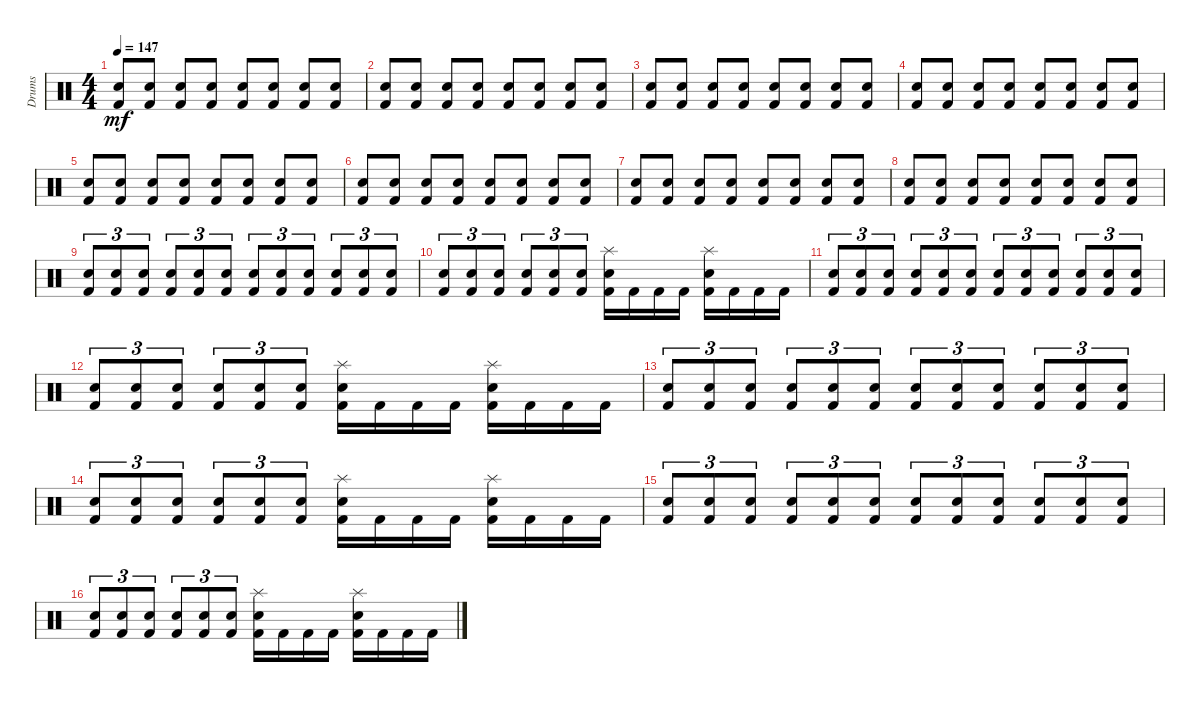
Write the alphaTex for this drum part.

\track ("Drums" "Drums") {instrument percussion}
\staff {score}
\articulation defaults
\ts (4 4)
\tempo 147
\clef neutral
\ks c
("Kick (hit) 2" "Snare (hit) 2").8{dy mf} ("Kick (hit) 2" "Snare (hit) 2").8 ("Kick (hit) 2" "Snare (hit) 2").8 ("Kick (hit) 2" "Snare (hit) 2").8 ("Kick (hit) 2" "Snare (hit) 2").8 ("Kick (hit) 2" "Snare (hit) 2").8 ("Kick (hit) 2" "Snare (hit) 2").8 ("Kick (hit) 2" "Snare (hit) 2").8 |
("Kick (hit) 2" "Snare (hit) 2").8 ("Kick (hit) 2" "Snare (hit) 2").8 ("Kick (hit) 2" "Snare (hit) 2").8 ("Kick (hit) 2" "Snare (hit) 2").8 ("Kick (hit) 2" "Snare (hit) 2").8 ("Kick (hit) 2" "Snare (hit) 2").8 ("Kick (hit) 2" "Snare (hit) 2").8 ("Kick (hit) 2" "Snare (hit) 2").8 |
("Kick (hit) 2" "Snare (hit) 2").8 ("Kick (hit) 2" "Snare (hit) 2").8 ("Kick (hit) 2" "Snare (hit) 2").8 ("Kick (hit) 2" "Snare (hit) 2").8 ("Kick (hit) 2" "Snare (hit) 2").8 ("Kick (hit) 2" "Snare (hit) 2").8 ("Kick (hit) 2" "Snare (hit) 2").8 ("Kick (hit) 2" "Snare (hit) 2").8 |
("Kick (hit) 2" "Snare (hit) 2").8 ("Kick (hit) 2" "Snare (hit) 2").8 ("Kick (hit) 2" "Snare (hit) 2").8 ("Kick (hit) 2" "Snare (hit) 2").8 ("Kick (hit) 2" "Snare (hit) 2").8 ("Kick (hit) 2" "Snare (hit) 2").8 ("Kick (hit) 2" "Snare (hit) 2").8 ("Kick (hit) 2" "Snare (hit) 2").8 |
("Kick (hit) 2" "Snare (hit) 2").8 ("Kick (hit) 2" "Snare (hit) 2").8 ("Kick (hit) 2" "Snare (hit) 2").8 ("Kick (hit) 2" "Snare (hit) 2").8 ("Kick (hit) 2" "Snare (hit) 2").8 ("Kick (hit) 2" "Snare (hit) 2").8 ("Kick (hit) 2" "Snare (hit) 2").8 ("Kick (hit) 2" "Snare (hit) 2").8 |
("Kick (hit) 2" "Snare (hit) 2").8 ("Kick (hit) 2" "Snare (hit) 2").8 ("Kick (hit) 2" "Snare (hit) 2").8 ("Kick (hit) 2" "Snare (hit) 2").8 ("Kick (hit) 2" "Snare (hit) 2").8 ("Kick (hit) 2" "Snare (hit) 2").8 ("Kick (hit) 2" "Snare (hit) 2").8 ("Kick (hit) 2" "Snare (hit) 2").8 |
("Kick (hit) 2" "Snare (hit) 2").8 ("Kick (hit) 2" "Snare (hit) 2").8 ("Kick (hit) 2" "Snare (hit) 2").8 ("Kick (hit) 2" "Snare (hit) 2").8 ("Kick (hit) 2" "Snare (hit) 2").8 ("Kick (hit) 2" "Snare (hit) 2").8 ("Kick (hit) 2" "Snare (hit) 2").8 ("Kick (hit) 2" "Snare (hit) 2").8 |
("Kick (hit) 2" "Snare (hit) 2").8 ("Kick (hit) 2" "Snare (hit) 2").8 ("Kick (hit) 2" "Snare (hit) 2").8 ("Kick (hit) 2" "Snare (hit) 2").8 ("Kick (hit) 2" "Snare (hit) 2").8 ("Kick (hit) 2" "Snare (hit) 2").8 ("Kick (hit) 2" "Snare (hit) 2").8 ("Kick (hit) 2" "Snare (hit) 2").8 |
("Kick (hit) 2" "Snare (hit) 2").8{tu (3 2)} ("Kick (hit) 2" "Snare (hit) 2").8{tu (3 2)} ("Kick (hit) 2" "Snare (hit) 2").8{tu (3 2)} ("Kick (hit) 2" "Snare (hit) 2").8{tu (3 2)} ("Kick (hit) 2" "Snare (hit) 2").8{tu (3 2)} ("Kick (hit) 2" "Snare (hit) 2").8{tu (3 2)} ("Kick (hit) 2" "Snare (hit) 2").8{tu (3 2)} ("Kick (hit) 2" "Snare (hit) 2").8{tu (3 2)} ("Kick (hit) 2" "Snare (hit) 2").8{tu (3 2)} ("Kick (hit) 2" "Snare (hit) 2").8{tu (3 2)} ("Kick (hit) 2" "Snare (hit) 2").8{tu (3 2)} ("Kick (hit) 2" "Snare (hit) 2").8{tu (3 2)} |
("Kick (hit) 2" "Snare (hit) 2").8{tu (3 2)} ("Kick (hit) 2" "Snare (hit) 2").8{tu (3 2)} ("Kick (hit) 2" "Snare (hit) 2").8{tu (3 2)} ("Kick (hit) 2" "Snare (hit) 2").8{tu (3 2)} ("Kick (hit) 2" "Snare (hit) 2").8{tu (3 2)} ("Kick (hit) 2" "Snare (hit) 2").8{tu (3 2)} ("Kick (hit) 2" "Snare (hit) 2" "Splash (hit)").16 "Kick (hit) 2".16 "Kick (hit) 2".16 "Kick (hit) 2".16 ("Kick (hit) 2" "Snare (hit) 2" "Splash (hit)").16 "Kick (hit) 2".16 "Kick (hit) 2".16 "Kick (hit) 2".16 |
("Kick (hit) 2" "Snare (hit) 2").8{tu (3 2)} ("Kick (hit) 2" "Snare (hit) 2").8{tu (3 2)} ("Kick (hit) 2" "Snare (hit) 2").8{tu (3 2)} ("Kick (hit) 2" "Snare (hit) 2").8{tu (3 2)} ("Kick (hit) 2" "Snare (hit) 2").8{tu (3 2)} ("Kick (hit) 2" "Snare (hit) 2").8{tu (3 2)} ("Kick (hit) 2" "Snare (hit) 2").8{tu (3 2)} ("Kick (hit) 2" "Snare (hit) 2").8{tu (3 2)} ("Kick (hit) 2" "Snare (hit) 2").8{tu (3 2)} ("Kick (hit) 2" "Snare (hit) 2").8{tu (3 2)} ("Kick (hit) 2" "Snare (hit) 2").8{tu (3 2)} ("Kick (hit) 2" "Snare (hit) 2").8{tu (3 2)} |
("Kick (hit) 2" "Snare (hit) 2").8{tu (3 2)} ("Kick (hit) 2" "Snare (hit) 2").8{tu (3 2)} ("Kick (hit) 2" "Snare (hit) 2").8{tu (3 2)} ("Kick (hit) 2" "Snare (hit) 2").8{tu (3 2)} ("Kick (hit) 2" "Snare (hit) 2").8{tu (3 2)} ("Kick (hit) 2" "Snare (hit) 2").8{tu (3 2)} ("Kick (hit) 2" "Snare (hit) 2" "Splash (hit)").16 "Kick (hit) 2".16 "Kick (hit) 2".16 "Kick (hit) 2".16 ("Kick (hit) 2" "Snare (hit) 2" "Splash (hit)").16 "Kick (hit) 2".16 "Kick (hit) 2".16 "Kick (hit) 2".16 |
("Kick (hit) 2" "Snare (hit) 2").8{tu (3 2)} ("Kick (hit) 2" "Snare (hit) 2").8{tu (3 2)} ("Kick (hit) 2" "Snare (hit) 2").8{tu (3 2)} ("Kick (hit) 2" "Snare (hit) 2").8{tu (3 2)} ("Kick (hit) 2" "Snare (hit) 2").8{tu (3 2)} ("Kick (hit) 2" "Snare (hit) 2").8{tu (3 2)} ("Kick (hit) 2" "Snare (hit) 2").8{tu (3 2)} ("Kick (hit) 2" "Snare (hit) 2").8{tu (3 2)} ("Kick (hit) 2" "Snare (hit) 2").8{tu (3 2)} ("Kick (hit) 2" "Snare (hit) 2").8{tu (3 2)} ("Kick (hit) 2" "Snare (hit) 2").8{tu (3 2)} ("Kick (hit) 2" "Snare (hit) 2").8{tu (3 2)} |
("Kick (hit) 2" "Snare (hit) 2").8{tu (3 2)} ("Kick (hit) 2" "Snare (hit) 2").8{tu (3 2)} ("Kick (hit) 2" "Snare (hit) 2").8{tu (3 2)} ("Kick (hit) 2" "Snare (hit) 2").8{tu (3 2)} ("Kick (hit) 2" "Snare (hit) 2").8{tu (3 2)} ("Kick (hit) 2" "Snare (hit) 2").8{tu (3 2)} ("Kick (hit) 2" "Snare (hit) 2" "Splash (hit)").16 "Kick (hit) 2".16 "Kick (hit) 2".16 "Kick (hit) 2".16 ("Kick (hit) 2" "Snare (hit) 2" "Splash (hit)").16 "Kick (hit) 2".16 "Kick (hit) 2".16 "Kick (hit) 2".16 |
("Kick (hit) 2" "Snare (hit) 2").8{tu (3 2)} ("Kick (hit) 2" "Snare (hit) 2").8{tu (3 2)} ("Kick (hit) 2" "Snare (hit) 2").8{tu (3 2)} ("Kick (hit) 2" "Snare (hit) 2").8{tu (3 2)} ("Kick (hit) 2" "Snare (hit) 2").8{tu (3 2)} ("Kick (hit) 2" "Snare (hit) 2").8{tu (3 2)} ("Kick (hit) 2" "Snare (hit) 2").8{tu (3 2)} ("Kick (hit) 2" "Snare (hit) 2").8{tu (3 2)} ("Kick (hit) 2" "Snare (hit) 2").8{tu (3 2)} ("Kick (hit) 2" "Snare (hit) 2").8{tu (3 2)} ("Kick (hit) 2" "Snare (hit) 2").8{tu (3 2)} ("Kick (hit) 2" "Snare (hit) 2").8{tu (3 2)} |
("Kick (hit) 2" "Snare (hit) 2").8{tu (3 2)} ("Kick (hit) 2" "Snare (hit) 2").8{tu (3 2)} ("Kick (hit) 2" "Snare (hit) 2").8{tu (3 2)} ("Kick (hit) 2" "Snare (hit) 2").8{tu (3 2)} ("Kick (hit) 2" "Snare (hit) 2").8{tu (3 2)} ("Kick (hit) 2" "Snare (hit) 2").8{tu (3 2)} ("Kick (hit) 2" "Snare (hit) 2" "Splash (hit)").16 "Kick (hit) 2".16 "Kick (hit) 2".16 "Kick (hit) 2".16 ("Kick (hit) 2" "Snare (hit) 2" "Splash (hit)").16 "Kick (hit) 2".16 "Kick (hit) 2".16 "Kick (hit) 2".16
